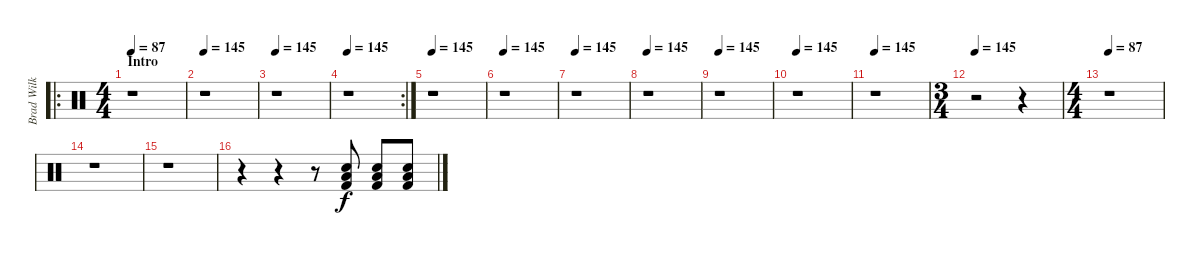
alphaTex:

\track ("Brad Wilk" "Brad Wilk") {instrument percussion}
\staff {score}
\articulation defaults
\ro
\ts (4 4)
\section ("" "Intro")
\tempo 87
\tempo 145
\tempo 87
\clef neutral
\ks c
r.1{dy f} |
\tempo 145
r.1 |
\tempo 145
r.1 |
\rc 2
\tempo 145
r.1 |
\tempo 145
r.1 |
\tempo 145
r.1 |
\tempo 145
r.1 |
\tempo 145
r.1 |
\tempo 145
r.1 |
\tempo 145
r.1 |
\tempo 145
r.1 |
\ts (3 4)
\tempo 145
r.2 r.4 |
\ts (4 4)
\tempo 87
r.1 |
r.1 |
r.1 |
r.4 r.4 r.8 ("Electric Snare (hit)" "Low Tom (hit)" "Kick (hit) 2").8 ("Electric Snare (hit)" "Low Tom (hit)" "Kick (hit) 2").8 ("Electric Snare (hit)" "Low Tom (hit)" "Kick (hit) 2").8
